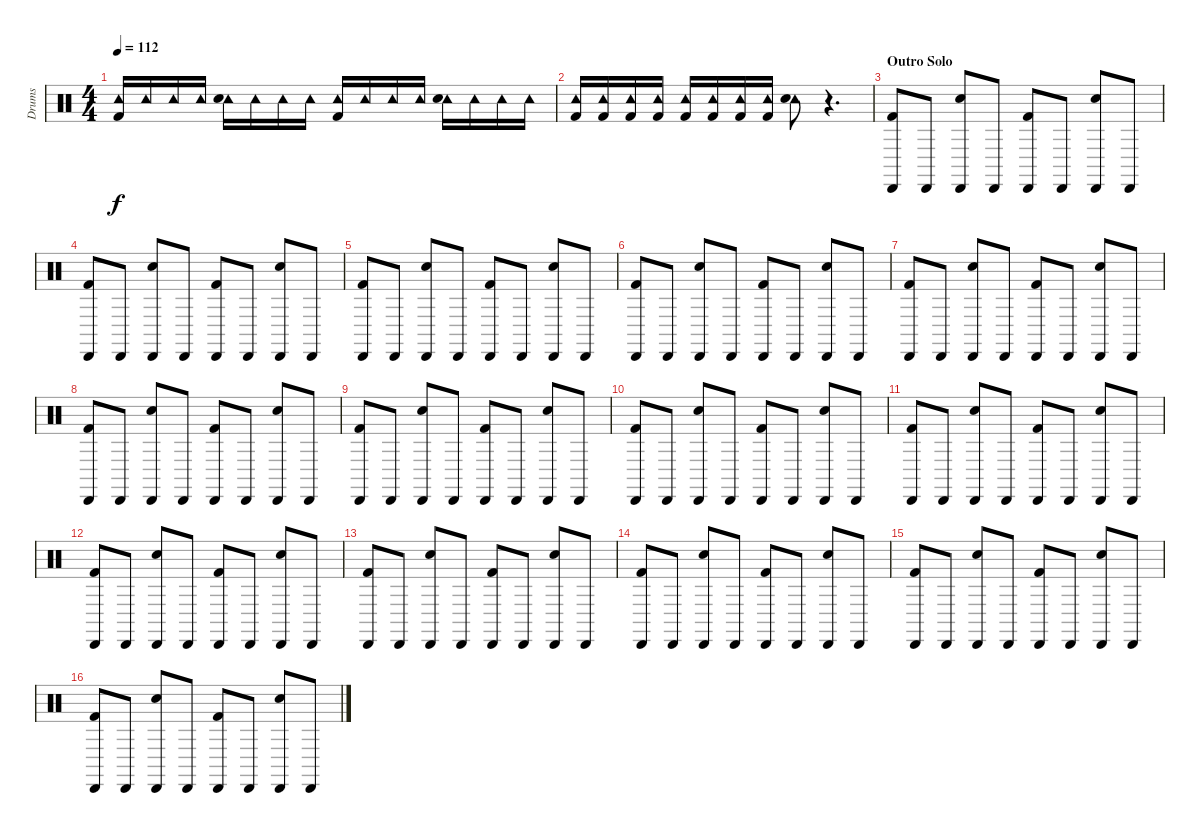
\track ("Drums" "Drums") {instrument percussion}
\staff {score}
\articulation defaults
\ts (4 4)
\tempo 112
\clef neutral
\ks c
("Tambourine (hit)" "Kick (hit) 2").16{dy f} "Tambourine (hit)".16 "Tambourine (hit)".16 "Tambourine (hit)".16 ("Tambourine (hit)" "Snare (hit) 2").16 "Tambourine (hit)".16 "Tambourine (hit)".16 "Tambourine (hit)".16 ("Tambourine (hit)" "Kick (hit) 2").16 "Tambourine (hit)".16 "Tambourine (hit)".16 "Tambourine (hit)".16 ("Tambourine (hit)" "Snare (hit) 2").16 "Tambourine (hit)".16 "Tambourine (hit)".16 "Tambourine (hit)".16 |
("Tambourine (hit)" "Kick (hit) 2").16 ("Tambourine (hit)" "Kick (hit) 2").16 ("Tambourine (hit)" "Kick (hit) 2").16 ("Tambourine (hit)" "Kick (hit) 2").16 ("Tambourine (hit)" "Kick (hit) 2").16 ("Tambourine (hit)" "Kick (hit) 2").16 ("Tambourine (hit)" "Kick (hit) 2").16 ("Tambourine (hit)" "Kick (hit) 2").16 ("Tambourine (hit)" "Snare (hit) 2").8 r.4{d} |
\section ("" "Outro Solo")
("Kick (hit) 2" "Cabasa (hit)").8 "Cabasa (hit)".8 ("Snare (hit) 2" "Cabasa (hit)").8 "Cabasa (hit)".8 ("Kick (hit) 2" "Cabasa (hit)").8 "Cabasa (hit)".8 ("Snare (hit) 2" "Cabasa (hit)").8 "Cabasa (hit)".8 |
("Kick (hit) 2" "Cabasa (hit)").8 "Cabasa (hit)".8 ("Snare (hit) 2" "Cabasa (hit)").8 "Cabasa (hit)".8 ("Kick (hit) 2" "Cabasa (hit)").8 "Cabasa (hit)".8 ("Snare (hit) 2" "Cabasa (hit)").8 "Cabasa (hit)".8 |
("Kick (hit) 2" "Cabasa (hit)").8 "Cabasa (hit)".8 ("Snare (hit) 2" "Cabasa (hit)").8 "Cabasa (hit)".8 ("Kick (hit) 2" "Cabasa (hit)").8 "Cabasa (hit)".8 ("Snare (hit) 2" "Cabasa (hit)").8 "Cabasa (hit)".8 |
("Kick (hit) 2" "Cabasa (hit)").8 "Cabasa (hit)".8 ("Snare (hit) 2" "Cabasa (hit)").8 "Cabasa (hit)".8 ("Kick (hit) 2" "Cabasa (hit)").8 "Cabasa (hit)".8 ("Snare (hit) 2" "Cabasa (hit)").8 "Cabasa (hit)".8 |
("Kick (hit) 2" "Cabasa (hit)").8 "Cabasa (hit)".8 ("Snare (hit) 2" "Cabasa (hit)").8 "Cabasa (hit)".8 ("Kick (hit) 2" "Cabasa (hit)").8 "Cabasa (hit)".8 ("Snare (hit) 2" "Cabasa (hit)").8 "Cabasa (hit)".8 |
("Kick (hit) 2" "Cabasa (hit)").8 "Cabasa (hit)".8 ("Snare (hit) 2" "Cabasa (hit)").8 "Cabasa (hit)".8 ("Kick (hit) 2" "Cabasa (hit)").8 "Cabasa (hit)".8 ("Snare (hit) 2" "Cabasa (hit)").8 "Cabasa (hit)".8 |
("Kick (hit) 2" "Cabasa (hit)").8 "Cabasa (hit)".8 ("Snare (hit) 2" "Cabasa (hit)").8 "Cabasa (hit)".8 ("Kick (hit) 2" "Cabasa (hit)").8 "Cabasa (hit)".8 ("Snare (hit) 2" "Cabasa (hit)").8 "Cabasa (hit)".8 |
("Kick (hit) 2" "Cabasa (hit)").8 "Cabasa (hit)".8 ("Snare (hit) 2" "Cabasa (hit)").8 "Cabasa (hit)".8 ("Kick (hit) 2" "Cabasa (hit)").8 "Cabasa (hit)".8 ("Snare (hit) 2" "Cabasa (hit)").8 "Cabasa (hit)".8 |
("Kick (hit) 2" "Cabasa (hit)").8 "Cabasa (hit)".8 ("Snare (hit) 2" "Cabasa (hit)").8 "Cabasa (hit)".8 ("Kick (hit) 2" "Cabasa (hit)").8 "Cabasa (hit)".8 ("Snare (hit) 2" "Cabasa (hit)").8 "Cabasa (hit)".8 |
("Kick (hit) 2" "Cabasa (hit)").8 "Cabasa (hit)".8 ("Snare (hit) 2" "Cabasa (hit)").8 "Cabasa (hit)".8 ("Kick (hit) 2" "Cabasa (hit)").8 "Cabasa (hit)".8 ("Snare (hit) 2" "Cabasa (hit)").8 "Cabasa (hit)".8 |
("Kick (hit) 2" "Cabasa (hit)").8 "Cabasa (hit)".8 ("Snare (hit) 2" "Cabasa (hit)").8 "Cabasa (hit)".8 ("Kick (hit) 2" "Cabasa (hit)").8 "Cabasa (hit)".8 ("Snare (hit) 2" "Cabasa (hit)").8 "Cabasa (hit)".8 |
("Kick (hit) 2" "Cabasa (hit)").8 "Cabasa (hit)".8 ("Snare (hit) 2" "Cabasa (hit)").8 "Cabasa (hit)".8 ("Kick (hit) 2" "Cabasa (hit)").8 "Cabasa (hit)".8 ("Snare (hit) 2" "Cabasa (hit)").8 "Cabasa (hit)".8 |
("Kick (hit) 2" "Cabasa (hit)").8 "Cabasa (hit)".8 ("Snare (hit) 2" "Cabasa (hit)").8 "Cabasa (hit)".8 ("Kick (hit) 2" "Cabasa (hit)").8 "Cabasa (hit)".8 ("Snare (hit) 2" "Cabasa (hit)").8 "Cabasa (hit)".8 |
("Kick (hit) 2" "Cabasa (hit)").8 "Cabasa (hit)".8 ("Snare (hit) 2" "Cabasa (hit)").8 "Cabasa (hit)".8 ("Kick (hit) 2" "Cabasa (hit)").8 "Cabasa (hit)".8 ("Snare (hit) 2" "Cabasa (hit)").8 "Cabasa (hit)".8
